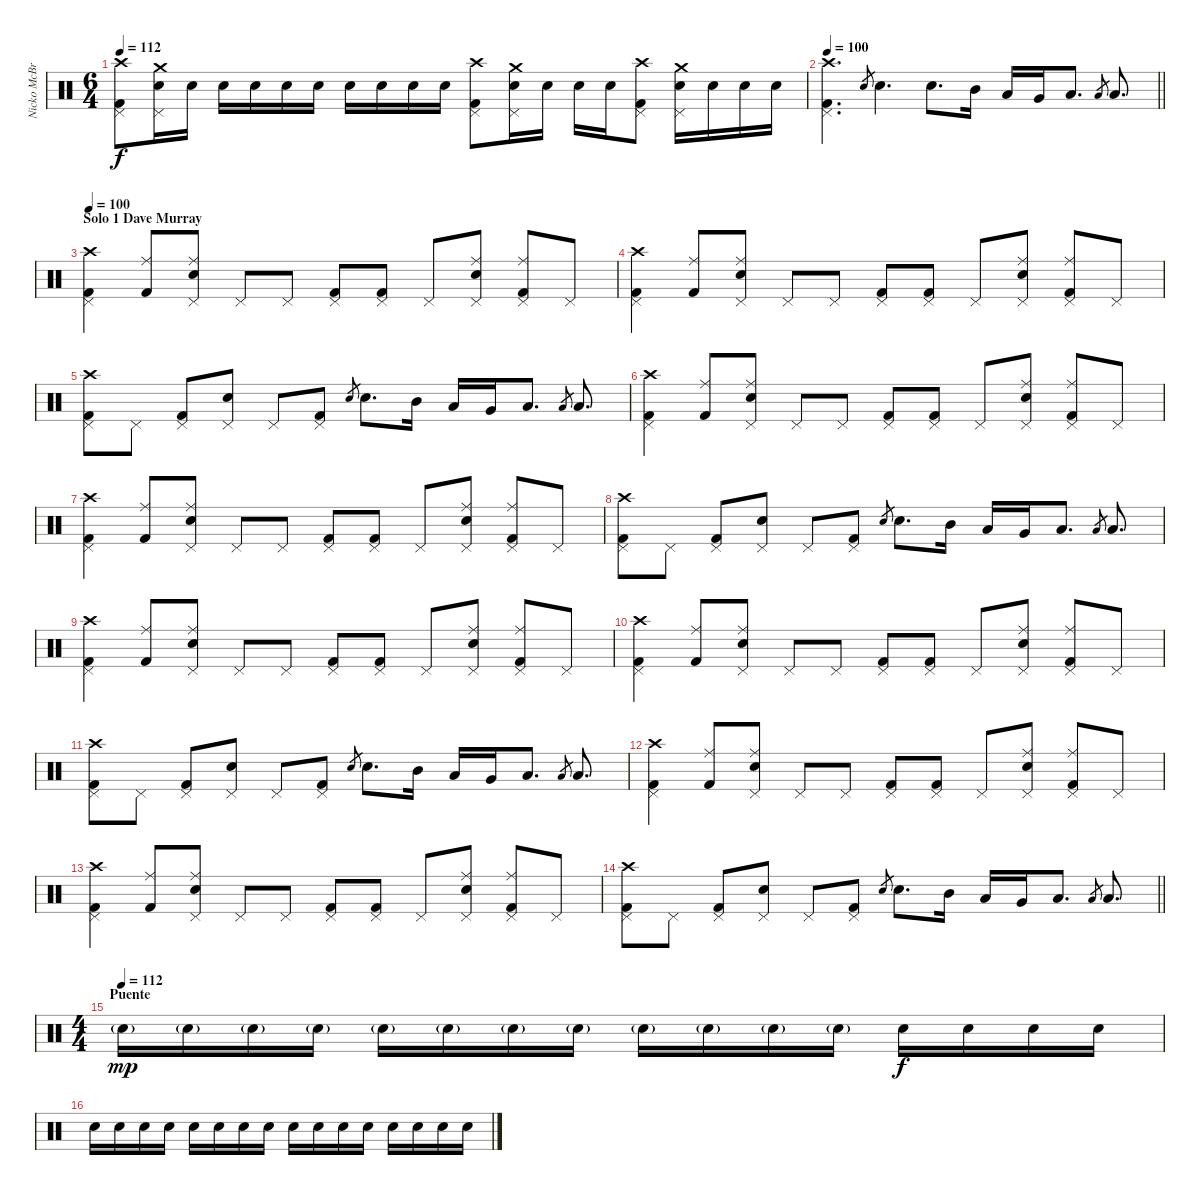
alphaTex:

\track ("Nicko McBrain" "Nicko McBr") {instrument percussion}
\staff {score}
\articulation defaults
\ts (6 4)
\tempo 112
\clef neutral
\ks c
("Kick (hit) 2" "Pedal Hi-Hat (hit)" "Crash high (hit)").8{dy f} ("Snare (hit) 2" "Pedal Hi-Hat (hit)" "Crash medium (hit)").16 "Snare (hit) 2".16 "Snare (hit) 2".16 "Snare (hit) 2".16 "Snare (hit) 2".16 "Snare (hit) 2".16 "Snare (hit) 2".16 "Snare (hit) 2".16 "Snare (hit) 2".16 "Snare (hit) 2".16 ("Kick (hit) 2" "Pedal Hi-Hat (hit)" "Crash high (hit)").8 ("Snare (hit) 2" "Pedal Hi-Hat (hit)" "Crash medium (hit)").16 "Snare (hit) 2".16 "Snare (hit) 2".16 "Snare (hit) 2".16 ("Kick (hit) 2" "Pedal Hi-Hat (hit)" "Crash high (hit)").8 ("Snare (hit) 2" "Pedal Hi-Hat (hit)" "Crash medium (hit)").16 "Snare (hit) 2".16 "Snare (hit) 2".16 "Snare (hit) 2".16 |
\tempo 100
\barLineRight lightlight
("Kick (hit) 2" "Pedal Hi-Hat (hit)" "Crash high (hit)").4{d} "Snare (hit) 2".8{gr} "Snare (hit) 2".4{d} "Snare (hit) 2".8{d} "Mid Tom (hit)".16 "Low Tom (hit)".16 "Very Low Tom (hit)".16 "Low Floor Tom (hit)".8{d} "Low Tom (hit)".8{gr} "Low Tom (hit)".8{d} |
\section ("" "Solo 1 Dave Murray")
\tempo 100
("Kick (hit) 2" "Pedal Hi-Hat (hit)" "Crash high (hit)").4 ("Kick (hit) 2" "Ride (middle)").8 ("Snare (hit) 2" "Pedal Hi-Hat (hit)" "Ride (middle)").8 "Pedal Hi-Hat (hit)".8 "Pedal Hi-Hat (hit)".8 ("Kick (hit) 2" "Pedal Hi-Hat (hit)").8 ("Kick (hit) 2" "Pedal Hi-Hat (hit)").8 "Pedal Hi-Hat (hit)".8 ("Snare (hit) 2" "Pedal Hi-Hat (hit)" "Ride (middle)").8 ("Kick (hit) 2" "Pedal Hi-Hat (hit)" "Ride (middle)").8 "Pedal Hi-Hat (hit)".8 |
("Kick (hit) 2" "Pedal Hi-Hat (hit)" "Crash high (hit)").4 ("Kick (hit) 2" "Ride (middle)").8 ("Snare (hit) 2" "Pedal Hi-Hat (hit)" "Ride (middle)").8 "Pedal Hi-Hat (hit)".8 "Pedal Hi-Hat (hit)".8 ("Kick (hit) 2" "Pedal Hi-Hat (hit)").8 ("Kick (hit) 2" "Pedal Hi-Hat (hit)").8 "Pedal Hi-Hat (hit)".8 ("Snare (hit) 2" "Pedal Hi-Hat (hit)" "Ride (middle)").8 ("Kick (hit) 2" "Pedal Hi-Hat (hit)" "Ride (middle)").8 "Pedal Hi-Hat (hit)".8 |
("Kick (hit) 2" "Pedal Hi-Hat (hit)" "Crash high (hit)").8 "Pedal Hi-Hat (hit)".8 ("Kick (hit) 2" "Pedal Hi-Hat (hit)").8 ("Snare (hit) 2" "Pedal Hi-Hat (hit)").8 "Pedal Hi-Hat (hit)".8 ("Kick (hit) 2" "Pedal Hi-Hat (hit)").8 "Snare (hit) 2".8{gr} "Snare (hit) 2".8{d} "Mid Tom (hit)".16 "Low Tom (hit)".16 "Very Low Tom (hit)".16 "Low Floor Tom (hit)".8{d} "Low Tom (hit)".8{gr} "Low Tom (hit)".8{d} |
("Kick (hit) 2" "Pedal Hi-Hat (hit)" "Crash high (hit)").4 ("Kick (hit) 2" "Ride (middle)").8 ("Snare (hit) 2" "Pedal Hi-Hat (hit)" "Ride (middle)").8 "Pedal Hi-Hat (hit)".8 "Pedal Hi-Hat (hit)".8 ("Kick (hit) 2" "Pedal Hi-Hat (hit)").8 ("Kick (hit) 2" "Pedal Hi-Hat (hit)").8 "Pedal Hi-Hat (hit)".8 ("Snare (hit) 2" "Pedal Hi-Hat (hit)" "Ride (middle)").8 ("Kick (hit) 2" "Pedal Hi-Hat (hit)" "Ride (middle)").8 "Pedal Hi-Hat (hit)".8 |
("Kick (hit) 2" "Pedal Hi-Hat (hit)" "Crash high (hit)").4 ("Kick (hit) 2" "Ride (middle)").8 ("Snare (hit) 2" "Pedal Hi-Hat (hit)" "Ride (middle)").8 "Pedal Hi-Hat (hit)".8 "Pedal Hi-Hat (hit)".8 ("Kick (hit) 2" "Pedal Hi-Hat (hit)").8 ("Kick (hit) 2" "Pedal Hi-Hat (hit)").8 "Pedal Hi-Hat (hit)".8 ("Snare (hit) 2" "Pedal Hi-Hat (hit)" "Ride (middle)").8 ("Kick (hit) 2" "Pedal Hi-Hat (hit)" "Ride (middle)").8 "Pedal Hi-Hat (hit)".8 |
("Kick (hit) 2" "Pedal Hi-Hat (hit)" "Crash high (hit)").8 "Pedal Hi-Hat (hit)".8 ("Kick (hit) 2" "Pedal Hi-Hat (hit)").8 ("Snare (hit) 2" "Pedal Hi-Hat (hit)").8 "Pedal Hi-Hat (hit)".8 ("Kick (hit) 2" "Pedal Hi-Hat (hit)").8 "Snare (hit) 2".8{gr} "Snare (hit) 2".8{d} "Mid Tom (hit)".16 "Low Tom (hit)".16 "Very Low Tom (hit)".16 "Low Floor Tom (hit)".8{d} "Low Tom (hit)".8{gr} "Low Tom (hit)".8{d} |
("Kick (hit) 2" "Pedal Hi-Hat (hit)" "Crash high (hit)").4 ("Kick (hit) 2" "Ride (middle)").8 ("Snare (hit) 2" "Pedal Hi-Hat (hit)" "Ride (middle)").8 "Pedal Hi-Hat (hit)".8 "Pedal Hi-Hat (hit)".8 ("Kick (hit) 2" "Pedal Hi-Hat (hit)").8 ("Kick (hit) 2" "Pedal Hi-Hat (hit)").8 "Pedal Hi-Hat (hit)".8 ("Snare (hit) 2" "Pedal Hi-Hat (hit)" "Ride (middle)").8 ("Kick (hit) 2" "Pedal Hi-Hat (hit)" "Ride (middle)").8 "Pedal Hi-Hat (hit)".8 |
("Kick (hit) 2" "Pedal Hi-Hat (hit)" "Crash high (hit)").4 ("Kick (hit) 2" "Ride (middle)").8 ("Snare (hit) 2" "Pedal Hi-Hat (hit)" "Ride (middle)").8 "Pedal Hi-Hat (hit)".8 "Pedal Hi-Hat (hit)".8 ("Kick (hit) 2" "Pedal Hi-Hat (hit)").8 ("Kick (hit) 2" "Pedal Hi-Hat (hit)").8 "Pedal Hi-Hat (hit)".8 ("Snare (hit) 2" "Pedal Hi-Hat (hit)" "Ride (middle)").8 ("Kick (hit) 2" "Pedal Hi-Hat (hit)" "Ride (middle)").8 "Pedal Hi-Hat (hit)".8 |
("Kick (hit) 2" "Pedal Hi-Hat (hit)" "Crash high (hit)").8 "Pedal Hi-Hat (hit)".8 ("Kick (hit) 2" "Pedal Hi-Hat (hit)").8 ("Snare (hit) 2" "Pedal Hi-Hat (hit)").8 "Pedal Hi-Hat (hit)".8 ("Kick (hit) 2" "Pedal Hi-Hat (hit)").8 "Snare (hit) 2".8{gr} "Snare (hit) 2".8{d} "Mid Tom (hit)".16 "Low Tom (hit)".16 "Very Low Tom (hit)".16 "Low Floor Tom (hit)".8{d} "Low Tom (hit)".8{gr} "Low Tom (hit)".8{d} |
("Kick (hit) 2" "Pedal Hi-Hat (hit)" "Crash high (hit)").4 ("Kick (hit) 2" "Ride (middle)").8 ("Snare (hit) 2" "Pedal Hi-Hat (hit)" "Ride (middle)").8 "Pedal Hi-Hat (hit)".8 "Pedal Hi-Hat (hit)".8 ("Kick (hit) 2" "Pedal Hi-Hat (hit)").8 ("Kick (hit) 2" "Pedal Hi-Hat (hit)").8 "Pedal Hi-Hat (hit)".8 ("Snare (hit) 2" "Pedal Hi-Hat (hit)" "Ride (middle)").8 ("Kick (hit) 2" "Pedal Hi-Hat (hit)" "Ride (middle)").8 "Pedal Hi-Hat (hit)".8 |
("Kick (hit) 2" "Pedal Hi-Hat (hit)" "Crash high (hit)").4 ("Kick (hit) 2" "Ride (middle)").8 ("Snare (hit) 2" "Pedal Hi-Hat (hit)" "Ride (middle)").8 "Pedal Hi-Hat (hit)".8 "Pedal Hi-Hat (hit)".8 ("Kick (hit) 2" "Pedal Hi-Hat (hit)").8 ("Kick (hit) 2" "Pedal Hi-Hat (hit)").8 "Pedal Hi-Hat (hit)".8 ("Snare (hit) 2" "Pedal Hi-Hat (hit)" "Ride (middle)").8 ("Kick (hit) 2" "Pedal Hi-Hat (hit)" "Ride (middle)").8 "Pedal Hi-Hat (hit)".8 |
\barLineRight lightlight
("Kick (hit) 2" "Pedal Hi-Hat (hit)" "Crash high (hit)").8 "Pedal Hi-Hat (hit)".8 ("Kick (hit) 2" "Pedal Hi-Hat (hit)").8 ("Snare (hit) 2" "Pedal Hi-Hat (hit)").8 "Pedal Hi-Hat (hit)".8 ("Kick (hit) 2" "Pedal Hi-Hat (hit)").8 "Snare (hit) 2".8{gr} "Snare (hit) 2".8{d} "Mid Tom (hit)".16 "Low Tom (hit)".16 "Very Low Tom (hit)".16 "Low Floor Tom (hit)".8{d} "Low Tom (hit)".8{gr} "Low Tom (hit)".8{d} |
\ts (4 4)
\section ("" "Puente")
\tempo (112)
"Snare (hit) 2"{g}.16{dy mp} "Snare (hit) 2"{g}.16 "Snare (hit) 2"{g}.16 "Snare (hit) 2"{g}.16 "Snare (hit) 2"{g}.16 "Snare (hit) 2"{g}.16 "Snare (hit) 2"{g}.16 "Snare (hit) 2"{g}.16 "Snare (hit) 2"{g}.16 "Snare (hit) 2"{g}.16 "Snare (hit) 2"{g}.16 "Snare (hit) 2"{g}.16 "Snare (hit) 2".16{dy f volume 8} "Snare (hit) 2".16 "Snare (hit) 2".16 "Snare (hit) 2".16 |
"Snare (hit) 2".16{volume 9} "Snare (hit) 2".16 "Snare (hit) 2".16 "Snare (hit) 2".16{volume 10} "Snare (hit) 2".16 "Snare (hit) 2".16 "Snare (hit) 2".16 "Snare (hit) 2".16 "Snare (hit) 2".16{volume 11} "Snare (hit) 2".16 "Snare (hit) 2".16 "Snare (hit) 2".16 "Snare (hit) 2".16{volume 12} "Snare (hit) 2".16 "Snare (hit) 2".16 "Snare (hit) 2".16
